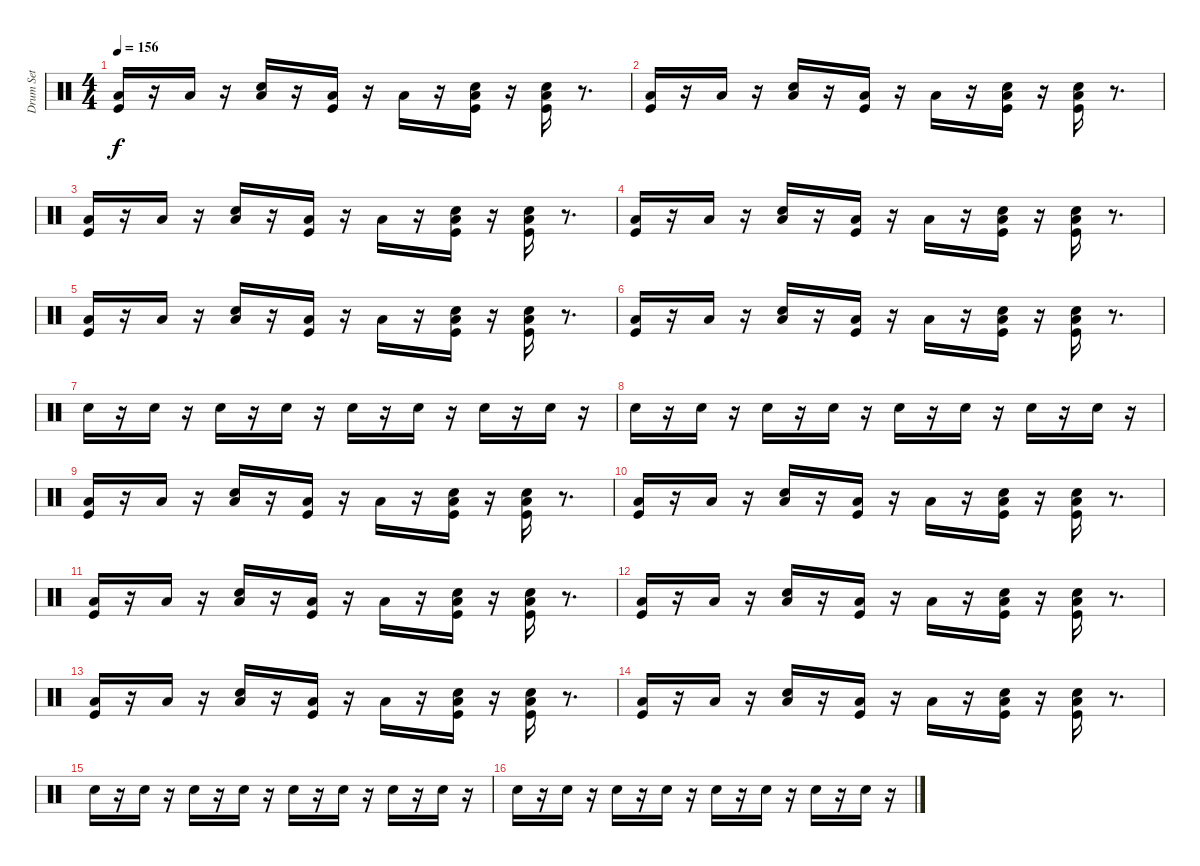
\track ("Drum Set" "Drum Set") {instrument percussion}
\staff {score}
\articulation defaults
\ts (4 4)
\tempo 156
\clef neutral
\ks c
("Low Floor Tom (hit)" "Kick (hit)").16{dy f} r.16 "Low Floor Tom (hit)".16 r.16 ("Low Floor Tom (hit)" "Snare (hit) 2").16 r.16 ("Low Floor Tom (hit)" "Kick (hit)").16 r.16 "Low Floor Tom (hit)".16 r.16 ("Low Floor Tom (hit)" "Kick (hit)" "Snare (hit) 2").16 r.16 ("Low Floor Tom (hit)" "Kick (hit)" "Snare (hit) 2").16 r.8{d} |
("Low Floor Tom (hit)" "Kick (hit)").16 r.16 "Low Floor Tom (hit)".16 r.16 ("Low Floor Tom (hit)" "Snare (hit) 2").16 r.16 ("Low Floor Tom (hit)" "Kick (hit)").16 r.16 "Low Floor Tom (hit)".16 r.16 ("Low Floor Tom (hit)" "Kick (hit)" "Snare (hit) 2").16 r.16 ("Low Floor Tom (hit)" "Kick (hit)" "Snare (hit) 2").16 r.8{d} |
("Low Floor Tom (hit)" "Kick (hit)").16 r.16 "Low Floor Tom (hit)".16 r.16 ("Low Floor Tom (hit)" "Snare (hit) 2").16 r.16 ("Low Floor Tom (hit)" "Kick (hit)").16 r.16 "Low Floor Tom (hit)".16 r.16 ("Low Floor Tom (hit)" "Kick (hit)" "Snare (hit) 2").16 r.16 ("Low Floor Tom (hit)" "Kick (hit)" "Snare (hit) 2").16 r.8{d} |
("Low Floor Tom (hit)" "Kick (hit)").16 r.16 "Low Floor Tom (hit)".16 r.16 ("Low Floor Tom (hit)" "Snare (hit) 2").16 r.16 ("Low Floor Tom (hit)" "Kick (hit)").16 r.16 "Low Floor Tom (hit)".16 r.16 ("Low Floor Tom (hit)" "Kick (hit)" "Snare (hit) 2").16 r.16 ("Low Floor Tom (hit)" "Kick (hit)" "Snare (hit) 2").16 r.8{d} |
("Low Floor Tom (hit)" "Kick (hit)").16 r.16 "Low Floor Tom (hit)".16 r.16 ("Low Floor Tom (hit)" "Snare (hit) 2").16 r.16 ("Low Floor Tom (hit)" "Kick (hit)").16 r.16 "Low Floor Tom (hit)".16 r.16 ("Low Floor Tom (hit)" "Kick (hit)" "Snare (hit) 2").16 r.16 ("Low Floor Tom (hit)" "Kick (hit)" "Snare (hit) 2").16 r.8{d} |
("Low Floor Tom (hit)" "Kick (hit)").16 r.16 "Low Floor Tom (hit)".16 r.16 ("Low Floor Tom (hit)" "Snare (hit) 2").16 r.16 ("Low Floor Tom (hit)" "Kick (hit)").16 r.16 "Low Floor Tom (hit)".16 r.16 ("Low Floor Tom (hit)" "Kick (hit)" "Snare (hit) 2").16 r.16 ("Low Floor Tom (hit)" "Kick (hit)" "Snare (hit) 2").16 r.8{d} |
"Snare (hit) 2".16 r.16 "Snare (hit) 2".16 r.16 "Snare (hit) 2".16 r.16 "Snare (hit) 2".16 r.16 "Snare (hit) 2".16 r.16 "Snare (hit) 2".16 r.16 "Snare (hit) 2".16 r.16 "Snare (hit) 2".16 r.16 |
"Snare (hit) 2".16 r.16 "Snare (hit) 2".16 r.16 "Snare (hit) 2".16 r.16 "Snare (hit) 2".16 r.16 "Snare (hit) 2".16 r.16 "Snare (hit) 2".16 r.16 "Snare (hit) 2".16 r.16 "Snare (hit) 2".16 r.16 |
("Low Floor Tom (hit)" "Kick (hit)").16 r.16 "Low Floor Tom (hit)".16 r.16 ("Low Floor Tom (hit)" "Snare (hit) 2").16 r.16 ("Low Floor Tom (hit)" "Kick (hit)").16 r.16 "Low Floor Tom (hit)".16 r.16 ("Low Floor Tom (hit)" "Kick (hit)" "Snare (hit) 2").16 r.16 ("Low Floor Tom (hit)" "Kick (hit)" "Snare (hit) 2").16 r.8{d} |
("Low Floor Tom (hit)" "Kick (hit)").16 r.16 "Low Floor Tom (hit)".16 r.16 ("Low Floor Tom (hit)" "Snare (hit) 2").16 r.16 ("Low Floor Tom (hit)" "Kick (hit)").16 r.16 "Low Floor Tom (hit)".16 r.16 ("Low Floor Tom (hit)" "Kick (hit)" "Snare (hit) 2").16 r.16 ("Low Floor Tom (hit)" "Kick (hit)" "Snare (hit) 2").16 r.8{d} |
("Low Floor Tom (hit)" "Kick (hit)").16 r.16 "Low Floor Tom (hit)".16 r.16 ("Low Floor Tom (hit)" "Snare (hit) 2").16 r.16 ("Low Floor Tom (hit)" "Kick (hit)").16 r.16 "Low Floor Tom (hit)".16 r.16 ("Low Floor Tom (hit)" "Kick (hit)" "Snare (hit) 2").16 r.16 ("Low Floor Tom (hit)" "Kick (hit)" "Snare (hit) 2").16 r.8{d} |
("Low Floor Tom (hit)" "Kick (hit)").16 r.16 "Low Floor Tom (hit)".16 r.16 ("Low Floor Tom (hit)" "Snare (hit) 2").16 r.16 ("Low Floor Tom (hit)" "Kick (hit)").16 r.16 "Low Floor Tom (hit)".16 r.16 ("Low Floor Tom (hit)" "Kick (hit)" "Snare (hit) 2").16 r.16 ("Low Floor Tom (hit)" "Kick (hit)" "Snare (hit) 2").16 r.8{d} |
("Low Floor Tom (hit)" "Kick (hit)").16 r.16 "Low Floor Tom (hit)".16 r.16 ("Low Floor Tom (hit)" "Snare (hit) 2").16 r.16 ("Low Floor Tom (hit)" "Kick (hit)").16 r.16 "Low Floor Tom (hit)".16 r.16 ("Low Floor Tom (hit)" "Kick (hit)" "Snare (hit) 2").16 r.16 ("Low Floor Tom (hit)" "Kick (hit)" "Snare (hit) 2").16 r.8{d} |
("Low Floor Tom (hit)" "Kick (hit)").16 r.16 "Low Floor Tom (hit)".16 r.16 ("Low Floor Tom (hit)" "Snare (hit) 2").16 r.16 ("Low Floor Tom (hit)" "Kick (hit)").16 r.16 "Low Floor Tom (hit)".16 r.16 ("Low Floor Tom (hit)" "Kick (hit)" "Snare (hit) 2").16 r.16 ("Low Floor Tom (hit)" "Kick (hit)" "Snare (hit) 2").16 r.8{d} |
"Snare (hit) 2".16 r.16 "Snare (hit) 2".16 r.16 "Snare (hit) 2".16 r.16 "Snare (hit) 2".16 r.16 "Snare (hit) 2".16 r.16 "Snare (hit) 2".16 r.16 "Snare (hit) 2".16 r.16 "Snare (hit) 2".16 r.16 |
"Snare (hit) 2".16 r.16 "Snare (hit) 2".16 r.16 "Snare (hit) 2".16 r.16 "Snare (hit) 2".16 r.16 "Snare (hit) 2".16 r.16 "Snare (hit) 2".16 r.16 "Snare (hit) 2".16 r.16 "Snare (hit) 2".16 r.16
